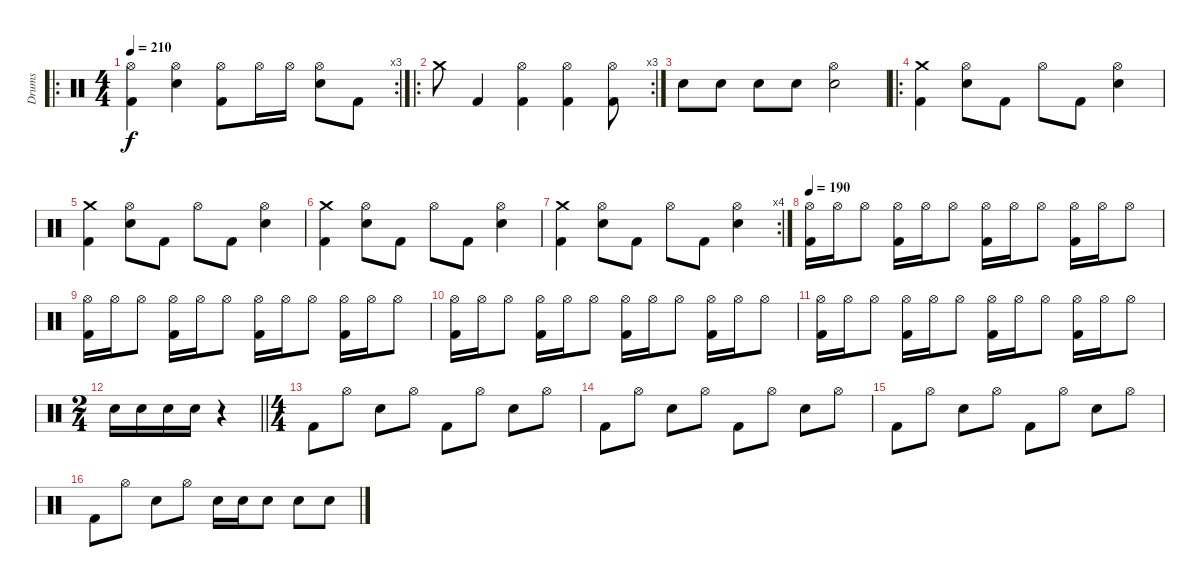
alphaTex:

\track ("Drums" "Drums") {instrument percussion}
\staff {score}
\articulation defaults
\ro
\rc 3
\ts (4 4)
\tempo 210
\clef neutral
\ks c
("Hi-Hat (open)" "Kick (hit) 2").4{dy f} ("Hi-Hat (open)" "Electric Snare (hit)").4 ("Hi-Hat (open)" "Kick (hit) 2").8 "Hi-Hat (open)".16 "Hi-Hat (open)".16 ("Hi-Hat (open)" "Electric Snare (hit)").8 "Kick (hit) 2".8 |
\ro
\rc 3 "Crash medium (hit)".8 "Kick (hit) 2".4
("Hi-Hat (open)" "Kick (hit) 2").4 ("Hi-Hat (open)" "Kick (hit) 2").4 ("Hi-Hat (open)" "Kick (hit) 2").8 |
"Electric Snare (hit)".8 "Electric Snare (hit)".8 "Electric Snare (hit)".8 "Electric Snare (hit)".8 ("Hi-Hat (open)" "Electric Snare (hit)").2 |
\ro
("Crash medium (hit)" "Kick (hit) 2").4 ("Hi-Hat (open)" "Electric Snare (hit)").8 "Kick (hit) 2".8 "Hi-Hat (open)".8 "Kick (hit) 2".8 ("Hi-Hat (open)" "Electric Snare (hit)").4 |
("Crash medium (hit)" "Kick (hit) 2").4 ("Hi-Hat (open)" "Electric Snare (hit)").8 "Kick (hit) 2".8 "Hi-Hat (open)".8 "Kick (hit) 2".8 ("Hi-Hat (open)" "Electric Snare (hit)").4 |
("Crash medium (hit)" "Kick (hit) 2").4 ("Hi-Hat (open)" "Electric Snare (hit)").8 "Kick (hit) 2".8 "Hi-Hat (open)".8 "Kick (hit) 2".8 ("Hi-Hat (open)" "Electric Snare (hit)").4 |
\rc 4
("Crash medium (hit)" "Kick (hit) 2").4 ("Hi-Hat (open)" "Electric Snare (hit)").8 "Kick (hit) 2".8 "Hi-Hat (open)".8 "Kick (hit) 2".8 ("Hi-Hat (open)" "Electric Snare (hit)").4 |
\tempo 190
("Hi-Hat (open)" "Kick (hit) 2").16 "Hi-Hat (open)".16 "Hi-Hat (open)".8 ("Hi-Hat (open)" "Kick (hit) 2").16 "Hi-Hat (open)".16 "Hi-Hat (open)".8 ("Hi-Hat (open)" "Kick (hit) 2").16 "Hi-Hat (open)".16 "Hi-Hat (open)".8 ("Hi-Hat (open)" "Kick (hit) 2").16 "Hi-Hat (open)".16 "Hi-Hat (open)".8 |
("Hi-Hat (open)" "Kick (hit) 2").16 "Hi-Hat (open)".16 "Hi-Hat (open)".8 ("Hi-Hat (open)" "Kick (hit) 2").16 "Hi-Hat (open)".16 "Hi-Hat (open)".8 ("Hi-Hat (open)" "Kick (hit) 2").16 "Hi-Hat (open)".16 "Hi-Hat (open)".8 ("Hi-Hat (open)" "Kick (hit) 2").16 "Hi-Hat (open)".16 "Hi-Hat (open)".8 |
("Hi-Hat (open)" "Kick (hit) 2").16 "Hi-Hat (open)".16 "Hi-Hat (open)".8 ("Hi-Hat (open)" "Kick (hit) 2").16 "Hi-Hat (open)".16 "Hi-Hat (open)".8 ("Hi-Hat (open)" "Kick (hit) 2").16 "Hi-Hat (open)".16 "Hi-Hat (open)".8 ("Hi-Hat (open)" "Kick (hit) 2").16 "Hi-Hat (open)".16 "Hi-Hat (open)".8 |
("Hi-Hat (open)" "Kick (hit) 2").16 "Hi-Hat (open)".16 "Hi-Hat (open)".8 ("Hi-Hat (open)" "Kick (hit) 2").16 "Hi-Hat (open)".16 "Hi-Hat (open)".8 ("Hi-Hat (open)" "Kick (hit) 2").16 "Hi-Hat (open)".16 "Hi-Hat (open)".8 ("Hi-Hat (open)" "Kick (hit) 2").16 "Hi-Hat (open)".16 "Hi-Hat (open)".8 |
\ts (2 4)
\barLineRight lightlight "Electric Snare (hit)".16 "Electric Snare (hit)".16 "Electric Snare (hit)".16 "Electric Snare (hit)".16
r.4 |
\ts (4 4)
"Kick (hit) 2".8 "Hi-Hat (open)".8 "Electric Snare (hit)".8 "Hi-Hat (open)".8 "Kick (hit) 2".8 "Hi-Hat (open)".8 "Electric Snare (hit)".8 "Hi-Hat (open)".8 |
"Kick (hit) 2".8 "Hi-Hat (open)".8 "Electric Snare (hit)".8 "Hi-Hat (open)".8 "Kick (hit) 2".8 "Hi-Hat (open)".8 "Electric Snare (hit)".8 "Hi-Hat (open)".8 |
"Kick (hit) 2".8 "Hi-Hat (open)".8 "Electric Snare (hit)".8 "Hi-Hat (open)".8 "Kick (hit) 2".8 "Hi-Hat (open)".8 "Electric Snare (hit)".8 "Hi-Hat (open)".8 |
"Kick (hit) 2".8 "Hi-Hat (open)".8 "Electric Snare (hit)".8 "Hi-Hat (open)".8 "Electric Snare (hit)".16 "Electric Snare (hit)".16 "Electric Snare (hit)".8 "Electric Snare (hit)".8 "Electric Snare (hit)".8
